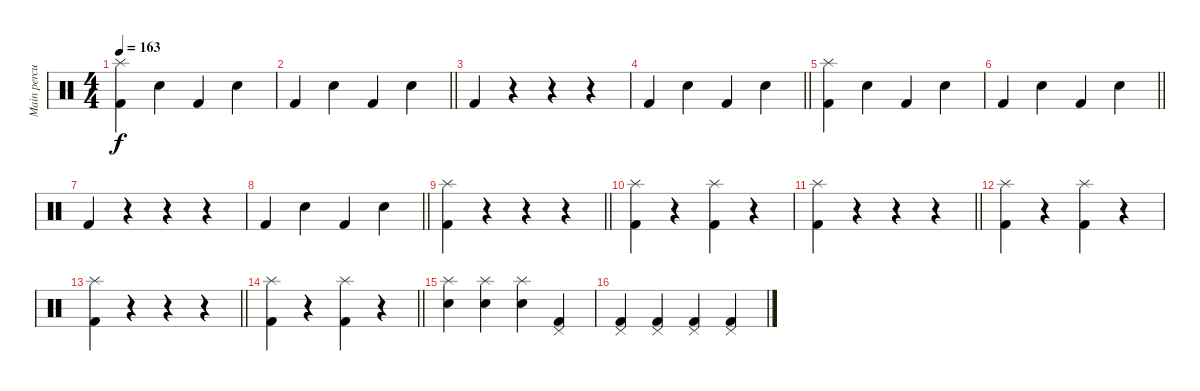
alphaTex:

\track ("Main percussion" "Main percu") {instrument percussion}
\staff {score}
\articulation defaults
\ts (4 4)
\tempo 163
\clef neutral
\ks c
("Kick (hit) 2" "Splash (hit)").4{dy f} "Electric Snare (hit)".4 "Kick (hit) 2".4 "Electric Snare (hit)".4 |
\barLineRight lightlight "Kick (hit) 2".4 "Electric Snare (hit)".4 "Kick (hit) 2".4 "Electric Snare (hit)".4
|
"Kick (hit) 2".4 r.4 r.4 r.4 |
\barLineRight lightlight "Kick (hit) 2".4 "Electric Snare (hit)".4 "Kick (hit) 2".4 "Electric Snare (hit)".4
|
("Kick (hit) 2" "Splash (hit)").4 "Electric Snare (hit)".4 "Kick (hit) 2".4 "Electric Snare (hit)".4 |
\barLineRight lightlight "Kick (hit) 2".4 "Electric Snare (hit)".4 "Kick (hit) 2".4 "Electric Snare (hit)".4
|
"Kick (hit) 2".4 r.4 r.4 r.4 |
\barLineRight lightlight "Kick (hit) 2".4 "Electric Snare (hit)".4 "Kick (hit) 2".4 "Electric Snare (hit)".4
|
\section ("" "")
\barLineRight lightlight
("Kick (hit) 2" "Splash (hit)").4 r.4 r.4 r.4 |
("Kick (hit) 2" "Splash (hit)").4 r.4 ("Kick (hit) 2" "Splash (hit)").4 r.4 |
\barLineRight lightlight
("Kick (hit) 2" "Splash (hit)").4 r.4 r.4 r.4 |
("Kick (hit) 2" "Splash (hit)").4 r.4 ("Kick (hit) 2" "Splash (hit)").4 r.4 |
\barLineRight lightlight
("Kick (hit) 2" "Splash (hit)").4 r.4 r.4 r.4 |
\barLineRight lightlight
("Kick (hit) 2" "Splash (hit)").4 r.4 ("Kick (hit) 2" "Splash (hit)").4 r.4 |
\section ("" "")
("Electric Snare (hit)" "Splash (hit)").4 ("Electric Snare (hit)" "Splash (hit)").4 ("Electric Snare (hit)" "Splash (hit)").4 ("Kick (hit) 2" "Pedal Hi-Hat (hit)").4 |
("Kick (hit) 2" "Pedal Hi-Hat (hit)").4 ("Kick (hit) 2" "Pedal Hi-Hat (hit)").4 ("Kick (hit) 2" "Pedal Hi-Hat (hit)").4 ("Kick (hit) 2" "Pedal Hi-Hat (hit)").4
